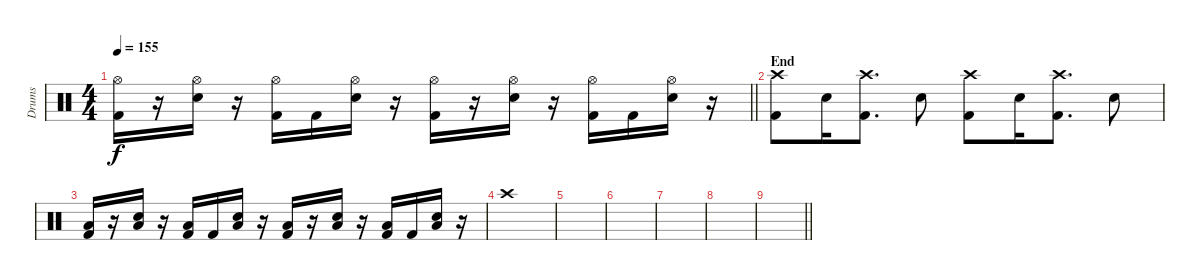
\track ("Drums" "Drums") {instrument percussion}
\staff {score}
\articulation defaults
\ts (4 4)
\tempo 155
\clef neutral
\barLineRight lightlight
\ks c
("Hi-Hat (open)" "Kick (hit) 2").16{dy f} r.16 ("Hi-Hat (open)" "Electric Snare (hit)").16 r.16 ("Hi-Hat (open)" "Kick (hit) 2").16 "Kick (hit) 2".16 ("Hi-Hat (open)" "Electric Snare (hit)").16 r.16 ("Hi-Hat (open)" "Kick (hit) 2").16 r.16 ("Hi-Hat (open)" "Electric Snare (hit)").16 r.16 ("Hi-Hat (open)" "Kick (hit) 2").16 "Kick (hit) 2".16 ("Hi-Hat (open)" "Electric Snare (hit)").16 r.16 |
\section ("" "End")
("Crash high (hit)" "Kick (hit) 2").8 "Electric Snare (hit)".16 ("Crash high (hit)" "Kick (hit) 2").8{d} "Electric Snare (hit)".8 ("Crash high (hit)" "Kick (hit) 2").8 "Electric Snare (hit)".16 ("Crash high (hit)" "Kick (hit) 2").8{d} "Electric Snare (hit)".8 |
("Low Tom (hit)" "Kick (hit) 2").16 r.16 ("Low Tom (hit)" "Electric Snare (hit)").16 r.16 ("Low Tom (hit)" "Kick (hit) 2").16 "Kick (hit) 2".16 ("Low Tom (hit)" "Electric Snare (hit)").16 r.16 ("Low Tom (hit)" "Kick (hit) 2").16 r.16 ("Low Tom (hit)" "Electric Snare (hit)").16 r.16 ("Low Tom (hit)" "Kick (hit) 2").16 "Kick (hit) 2".16 ("Low Tom (hit)" "Electric Snare (hit)").16 r.16 |
"Crash high (hit)".1 |
|
|
|
|
\barLineRight lightlight
